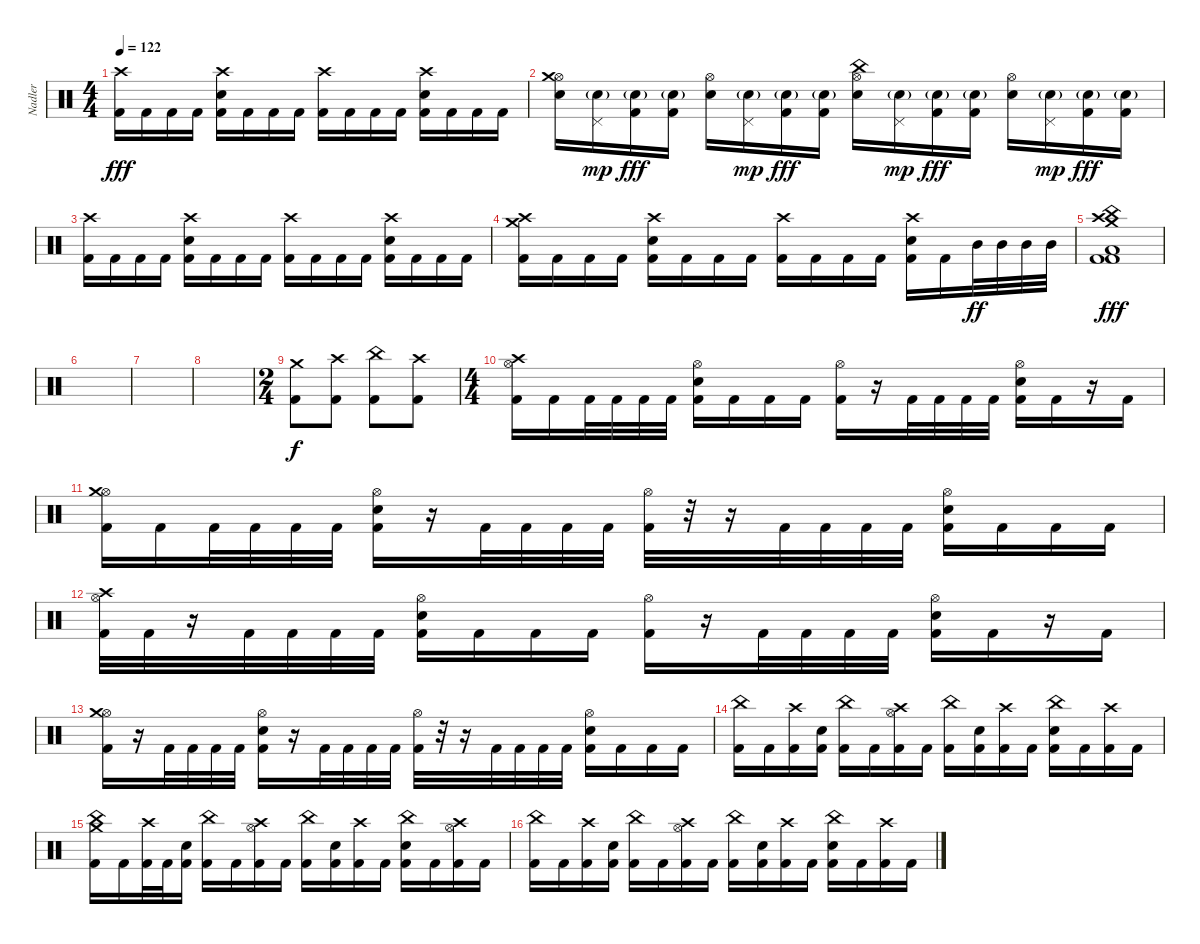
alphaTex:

\track ("Nadler" "Nadler") {mute instrument percussion}
\staff {score}
\articulation defaults
\ts (4 4)
\tempo 122
\clef neutral
\ks c
("Crash high (hit)" "Kick (hit) 2").16{dy fff} "Kick (hit) 2".16 "Kick (hit) 2".16 "Kick (hit) 2".16 ("Crash high (hit)" "Electric Snare (hit)" "Kick (hit) 2").16 "Kick (hit) 2".16 "Kick (hit) 2".16 "Kick (hit) 2".16 ("Crash high (hit)" "Kick (hit) 2").16 "Kick (hit) 2".16 "Kick (hit) 2".16 "Kick (hit) 2".16 ("Crash high (hit)" "Electric Snare (hit)" "Kick (hit) 2").16 "Kick (hit) 2".16 "Kick (hit) 2".16 "Kick (hit) 2".16 |
("Hi-Hat (open)" "Crash medium (hit)" "Electric Snare (hit)").16 ("Pedal Hi-Hat (hit)" "Electric Snare (hit)"{g}).16{dy mp} ("Electric Snare (hit)"{g} "Kick (hit) 2").16{dy fff} ("Electric Snare (hit)"{g} "Kick (hit) 2").16 ("Hi-Hat (open)" "Electric Snare (hit)").16 ("Pedal Hi-Hat (hit)" "Electric Snare (hit)"{g}).16{dy mp} ("Electric Snare (hit)"{g} "Kick (hit) 2").16{dy fff} ("Electric Snare (hit)"{g} "Kick (hit) 2").16 ("Hi-Hat (open)" "China (hit)" "Electric Snare (hit)").16 ("Pedal Hi-Hat (hit)" "Electric Snare (hit)"{g}).16{dy mp} ("Electric Snare (hit)"{g} "Kick (hit) 2").16{dy fff} ("Electric Snare (hit)"{g} "Kick (hit) 2").16 ("Hi-Hat (open)" "Electric Snare (hit)").16 ("Pedal Hi-Hat (hit)" "Electric Snare (hit)"{g}).16{dy mp} ("Electric Snare (hit)"{g} "Kick (hit) 2").16{dy fff} ("Electric Snare (hit)"{g} "Kick (hit) 2").16 |
("Crash high (hit)" "Kick (hit) 2").16 "Kick (hit) 2".16 "Kick (hit) 2".16 "Kick (hit) 2".16 ("Crash high (hit)" "Electric Snare (hit)" "Kick (hit) 2").16 "Kick (hit) 2".16 "Kick (hit) 2".16 "Kick (hit) 2".16 ("Crash high (hit)" "Kick (hit) 2").16 "Kick (hit) 2".16 "Kick (hit) 2".16 "Kick (hit) 2".16 ("Crash high (hit)" "Electric Snare (hit)" "Kick (hit) 2").16 "Kick (hit) 2".16 "Kick (hit) 2".16 "Kick (hit) 2".16 |
("Crash medium (hit)" "Crash high (hit)" "Kick (hit) 2").16 "Kick (hit) 2".16 "Kick (hit) 2".16 "Kick (hit) 2".16 ("Crash high (hit)" "Electric Snare (hit)" "Kick (hit) 2").16 "Kick (hit) 2".16 "Kick (hit) 2".16 "Kick (hit) 2".16 ("Crash high (hit)" "Kick (hit) 2").16 "Kick (hit) 2".16 "Kick (hit) 2".16 "Kick (hit) 2".16 ("Crash high (hit)" "Electric Snare (hit)" "Kick (hit) 2").16 "Kick (hit) 2".16 "Mid Tom (hit)".32{dy ff} "Mid Tom (hit)".32 "Mid Tom (hit)".32 "Mid Tom (hit)".32 |
("China (hit)" "Crash medium (hit)" "Crash high (hit)" "Low Floor Tom (hit)" "Kick (hit) 2" "Kick (hit) 2").1{dy fff} |
|
|
|
\ts (2 4)
("Crash medium (hit)" "Kick (hit) 2").8{dy f} ("Crash high (hit)" "Kick (hit) 2").8 ("China (hit)" "Kick (hit) 2").8 ("Crash high (hit)" "Kick (hit) 2").8 |
\ts (4 4)
("Hi-Hat (open)" "Crash high (hit)" "Kick (hit) 2").16 "Kick (hit) 2".16 "Kick (hit) 2".32 "Kick (hit) 2".32 "Kick (hit) 2".32 "Kick (hit) 2".32 ("Hi-Hat (open)" "Electric Snare (hit)" "Kick (hit) 2").16 "Kick (hit) 2".16 "Kick (hit) 2".16 "Kick (hit) 2".16 ("Hi-Hat (open)" "Kick (hit) 2").16 r.16 "Kick (hit) 2".32 "Kick (hit) 2".32 "Kick (hit) 2".32 "Kick (hit) 2".32 ("Hi-Hat (open)" "Electric Snare (hit)" "Kick (hit) 2").16 "Kick (hit) 2".16 r.16 "Kick (hit) 2".16 |
("Hi-Hat (open)" "Crash medium (hit)" "Kick (hit) 2").16 "Kick (hit) 2".16 "Kick (hit) 2".32 "Kick (hit) 2".32 "Kick (hit) 2".32 "Kick (hit) 2".32 ("Hi-Hat (open)" "Electric Snare (hit)" "Kick (hit) 2").16 r.16 "Kick (hit) 2".32 "Kick (hit) 2".32 "Kick (hit) 2".32 "Kick (hit) 2".32 ("Hi-Hat (open)" "Kick (hit) 2").32 r.32 r.16 "Kick (hit) 2".32 "Kick (hit) 2".32 "Kick (hit) 2".32 "Kick (hit) 2".32 ("Hi-Hat (open)" "Electric Snare (hit)" "Kick (hit) 2").16 "Kick (hit) 2".16 "Kick (hit) 2".16 "Kick (hit) 2".16 |
("Hi-Hat (open)" "Crash high (hit)" "Kick (hit) 2").32 "Kick (hit) 2".32 r.16 "Kick (hit) 2".32 "Kick (hit) 2".32 "Kick (hit) 2".32 "Kick (hit) 2".32 ("Hi-Hat (open)" "Electric Snare (hit)" "Kick (hit) 2").16 "Kick (hit) 2".16 "Kick (hit) 2".16 "Kick (hit) 2".16 ("Hi-Hat (open)" "Kick (hit) 2").16 r.16 "Kick (hit) 2".32 "Kick (hit) 2".32 "Kick (hit) 2".32 "Kick (hit) 2".32 ("Hi-Hat (open)" "Electric Snare (hit)" "Kick (hit) 2").16 "Kick (hit) 2".16 r.16 "Kick (hit) 2".16 |
("Hi-Hat (open)" "Crash medium (hit)" "Kick (hit) 2").16 r.16 "Kick (hit) 2".32 "Kick (hit) 2".32 "Kick (hit) 2".32 "Kick (hit) 2".32 ("Hi-Hat (open)" "Electric Snare (hit)" "Kick (hit) 2").16 r.16 "Kick (hit) 2".32 "Kick (hit) 2".32 "Kick (hit) 2".32 "Kick (hit) 2".32 ("Hi-Hat (open)" "Kick (hit) 2").32 r.32 r.16 "Kick (hit) 2".32 "Kick (hit) 2".32 "Kick (hit) 2".32 "Kick (hit) 2".32 ("Hi-Hat (open)" "Electric Snare (hit)" "Kick (hit) 2").16 "Kick (hit) 2".16 "Kick (hit) 2".16 "Kick (hit) 2".16 |
("China (hit)" "Kick (hit) 2").16 "Kick (hit) 2".16 ("Crash high (hit)" "Kick (hit) 2").16 ("Electric Snare (hit)" "Kick (hit) 2").16 ("China (hit)" "Kick (hit) 2").16 "Kick (hit) 2".16 ("Crash high (hit)" "Hi-Hat (open)" "Kick (hit) 2").16 "Kick (hit) 2".16 ("China (hit)" "Kick (hit) 2").16 ("Electric Snare (hit)" "Kick (hit) 2").16 ("Crash high (hit)" "Kick (hit) 2").16 "Kick (hit) 2".16 ("China (hit)" "Electric Snare (hit)" "Kick (hit) 2").16 "Kick (hit) 2".16 ("Crash high (hit)" "Kick (hit) 2").16 "Kick (hit) 2".16 |
("Crash medium (hit)" "China (hit)" "Kick (hit) 2").16 "Kick (hit) 2".16 ("Crash high (hit)" "Kick (hit) 2").32 "Kick (hit) 2".32 ("Electric Snare (hit)" "Kick (hit) 2").16 ("China (hit)" "Kick (hit) 2").16 "Kick (hit) 2".16 ("Crash high (hit)" "Hi-Hat (open)" "Kick (hit) 2").16 "Kick (hit) 2".16 ("China (hit)" "Kick (hit) 2").16 ("Electric Snare (hit)" "Kick (hit) 2").16 ("Crash high (hit)" "Kick (hit) 2").16 "Kick (hit) 2".16 ("China (hit)" "Electric Snare (hit)" "Kick (hit) 2").16 "Kick (hit) 2".16 ("Crash high (hit)" "Hi-Hat (open)" "Kick (hit) 2").16 "Kick (hit) 2".16 |
("China (hit)" "Kick (hit) 2").16 "Kick (hit) 2".16 ("Crash high (hit)" "Kick (hit) 2").16 ("Electric Snare (hit)" "Kick (hit) 2").16 ("China (hit)" "Kick (hit) 2").16 "Kick (hit) 2".16 ("Crash high (hit)" "Hi-Hat (open)" "Kick (hit) 2").16 "Kick (hit) 2".16 ("China (hit)" "Kick (hit) 2").16 ("Electric Snare (hit)" "Kick (hit) 2").16 ("Crash high (hit)" "Kick (hit) 2").16 "Kick (hit) 2".16 ("China (hit)" "Electric Snare (hit)" "Kick (hit) 2").16 "Kick (hit) 2".16 ("Crash high (hit)" "Kick (hit) 2").16 "Kick (hit) 2".16
